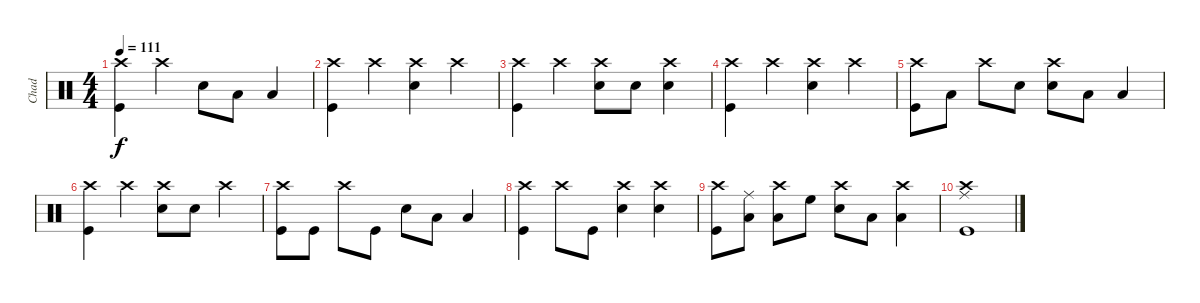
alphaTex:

\track ("Chad" "Chad") {instrument percussion}
\staff {score}
\articulation defaults
\ts (4 4)
\tempo 111
\clef neutral
\ks c
("Kick (hit)" "Crash high (hit)").4{dy f} "Crash high (hit)".4 "Snare (hit) 2".8 "Low Tom (hit)".8 "Low Floor Tom (hit)".4 |
("Kick (hit)" "Crash high (hit)").4 "Crash high (hit)".4 ("Snare (hit) 2" "Crash high (hit)").4 "Crash high (hit)".4 |
("Kick (hit)" "Crash high (hit)").4 "Crash high (hit)".4 ("Snare (hit) 2" "Crash high (hit)").8 "Snare (hit) 2".8 ("Crash high (hit)" "Snare (hit) 2").4 |
("Kick (hit)" "Crash high (hit)").4 "Crash high (hit)".4 ("Snare (hit) 2" "Crash high (hit)").4 "Crash high (hit)".4 |
("Kick (hit)" "Crash high (hit)").8 "Low Floor Tom (hit)".8 "Crash high (hit)".8 "Snare (hit) 2".8 ("Snare (hit) 2" "Crash high (hit)").8 "Low Tom (hit)".8 "Low Floor Tom (hit)".4 |
("Kick (hit)" "Crash high (hit)").4 "Crash high (hit)".4 ("Snare (hit) 2" "Crash high (hit)").8 "Snare (hit) 2".8 "Crash high (hit)".4 |
("Kick (hit)" "Crash high (hit)").8 "Kick (hit)".8 "Crash high (hit)".8 "Kick (hit)".8 "Snare (hit) 2".8 "Low Tom (hit)".8 "Low Floor Tom (hit)".4 |
("Kick (hit)" "Crash high (hit)").4 "Crash high (hit)".8 "Kick (hit)".8 ("Snare (hit) 2" "Crash high (hit)").4 ("Crash high (hit)" "Snare (hit) 2").4 |
("Kick (hit)" "Crash high (hit)").8 ("Ride (middle)" "Low Tom (hit)").8 ("Low Floor Tom (hit)" "Crash high (hit)").8 "High Floor Tom (hit)".8 ("Snare (hit) 2" "Crash high (hit)").8 "Low Tom (hit)".8 ("Crash high (hit)" "Low Floor Tom (hit)").4 |
("Crash high (hit)" "Ride (middle)" "Kick (hit)").1
